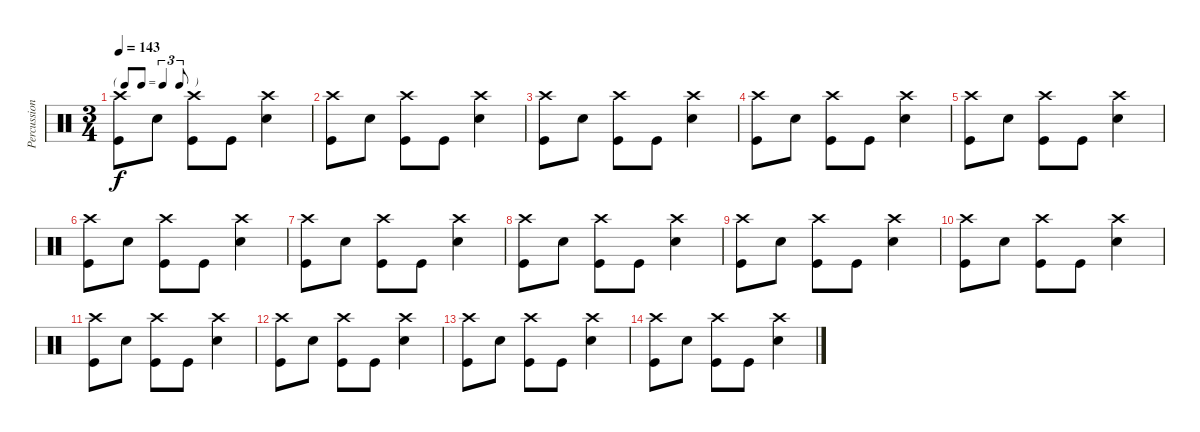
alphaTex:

\track ("Percussion" "Percussion") {instrument percussion}
\staff {score}
\articulation defaults
\ts (3 4)
\tf triplet8th
\tempo 143
\clef neutral
\ks c
("Crash high (hit)" "Kick (hit)").8{dy f} "Electric Snare (hit)".8 ("Crash high (hit)" "Kick (hit)").8 "Kick (hit)".8 ("Crash high (hit)" "Electric Snare (hit)").4 |
("Crash high (hit)" "Kick (hit)").8 "Electric Snare (hit)".8 ("Crash high (hit)" "Kick (hit)").8 "Kick (hit)".8 ("Crash high (hit)" "Electric Snare (hit)").4 |
("Crash high (hit)" "Kick (hit)").8 "Electric Snare (hit)".8 ("Crash high (hit)" "Kick (hit)").8 "Kick (hit)".8 ("Crash high (hit)" "Electric Snare (hit)").4 |
("Crash high (hit)" "Kick (hit)").8 "Electric Snare (hit)".8 ("Crash high (hit)" "Kick (hit)").8 "Kick (hit)".8 ("Crash high (hit)" "Electric Snare (hit)").4 |
("Crash high (hit)" "Kick (hit)").8 "Electric Snare (hit)".8 ("Crash high (hit)" "Kick (hit)").8 "Kick (hit)".8 ("Crash high (hit)" "Electric Snare (hit)").4 |
("Crash high (hit)" "Kick (hit)").8 "Electric Snare (hit)".8 ("Crash high (hit)" "Kick (hit)").8 "Kick (hit)".8 ("Crash high (hit)" "Electric Snare (hit)").4 |
("Crash high (hit)" "Kick (hit)").8 "Electric Snare (hit)".8 ("Crash high (hit)" "Kick (hit)").8 "Kick (hit)".8 ("Crash high (hit)" "Electric Snare (hit)").4 |
("Crash high (hit)" "Kick (hit)").8 "Electric Snare (hit)".8 ("Crash high (hit)" "Kick (hit)").8 "Kick (hit)".8 ("Crash high (hit)" "Electric Snare (hit)").4 |
("Crash high (hit)" "Kick (hit)").8{volume 0} "Electric Snare (hit)".8 ("Crash high (hit)" "Kick (hit)").8 "Kick (hit)".8 ("Crash high (hit)" "Electric Snare (hit)").4 |
("Crash high (hit)" "Kick (hit)").8 "Electric Snare (hit)".8 ("Crash high (hit)" "Kick (hit)").8 "Kick (hit)".8 ("Crash high (hit)" "Electric Snare (hit)").4 |
("Crash high (hit)" "Kick (hit)").8 "Electric Snare (hit)".8 ("Crash high (hit)" "Kick (hit)").8 "Kick (hit)".8 ("Crash high (hit)" "Electric Snare (hit)").4 |
("Crash high (hit)" "Kick (hit)").8 "Electric Snare (hit)".8 ("Crash high (hit)" "Kick (hit)").8 "Kick (hit)".8 ("Crash high (hit)" "Electric Snare (hit)").4 |
("Crash high (hit)" "Kick (hit)").8 "Electric Snare (hit)".8 ("Crash high (hit)" "Kick (hit)").8 "Kick (hit)".8 ("Crash high (hit)" "Electric Snare (hit)").4 |
("Crash high (hit)" "Kick (hit)").8 "Electric Snare (hit)".8 ("Crash high (hit)" "Kick (hit)").8 "Kick (hit)".8 ("Crash high (hit)" "Electric Snare (hit)").4
